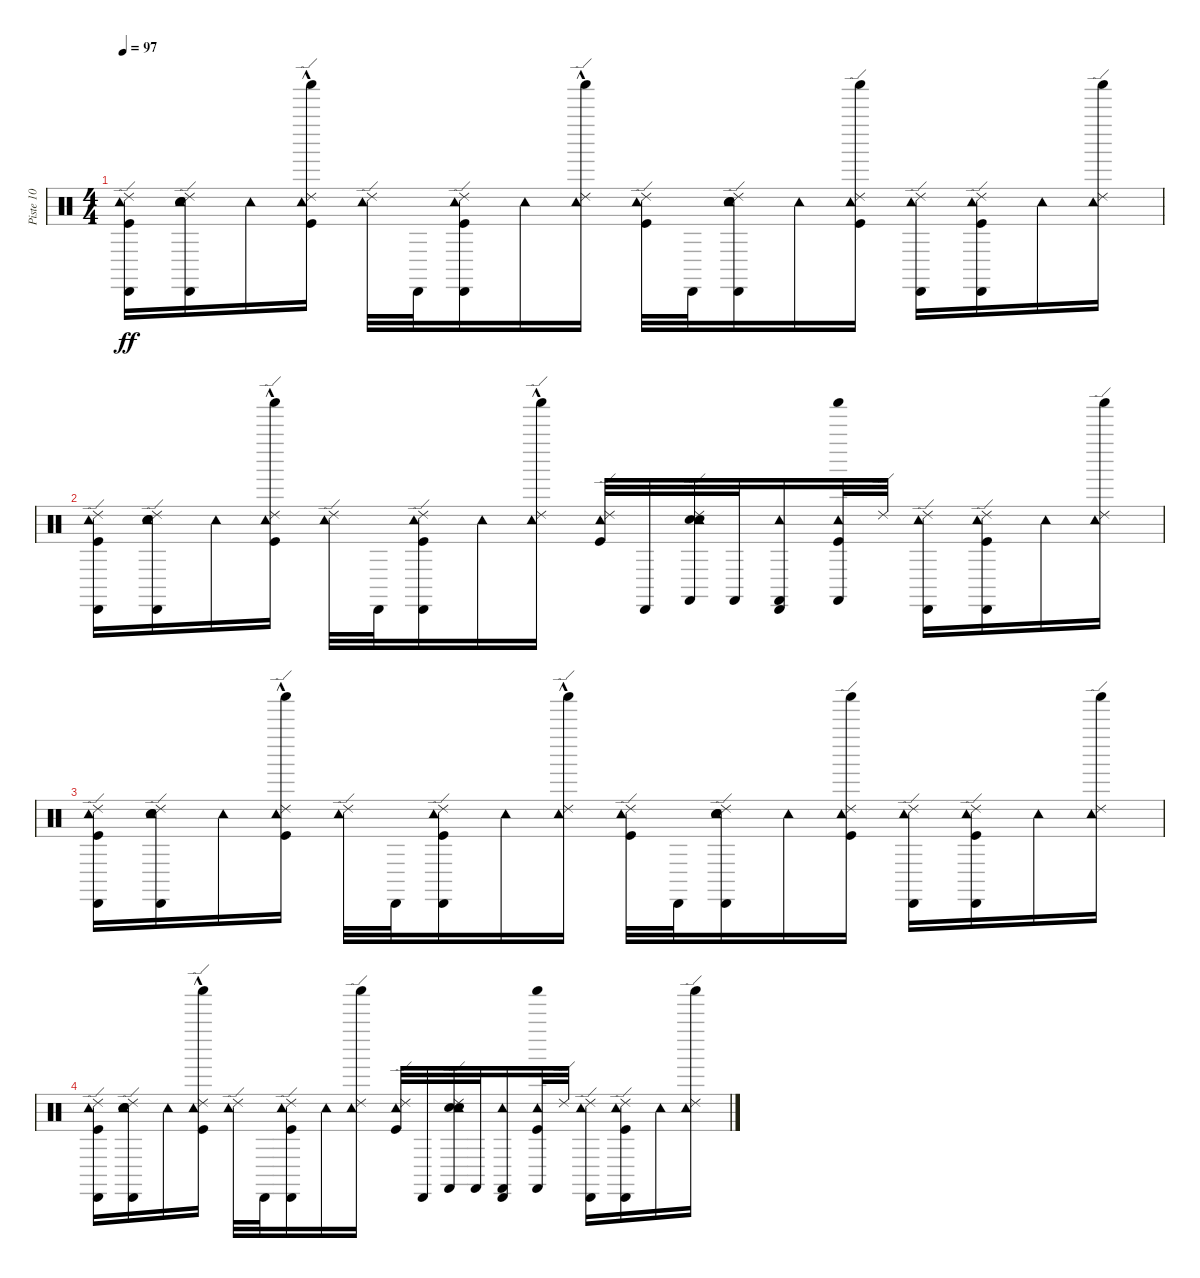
\track ("Piste 10" "Piste 10") {instrument percussion}
\staff {score}
\articulation defaults
\ts (4 4)
\tempo 97
\clef neutral
\ks c
("Cabasa (hit)" "Kick (hit)" "Tambourine (hit)" "Ride (edge) 2").16{dy ff} ("Cabasa (hit)" "Hand Clap (hit)" "Electric Snare (hit)" "Tambourine (hit)" "Ride (edge) 2").16 "Tambourine (hit)".16 ("Shaker (hit)"{hac} "Kick (hit)" "Tambourine (hit)" "Ride (edge) 2").16 ("Tambourine (hit)" "Ride (edge) 2").32 "Cabasa (hit)".32 ("Cabasa (hit)" "Kick (hit)" "Tambourine (hit)" "Ride (edge) 2").16 "Tambourine (hit)".16 ("Shaker (hit)"{hac} "Tambourine (hit)" "Ride (edge) 2").16 ("Kick (hit)" "Tambourine (hit)" "Ride (edge) 2").32 "Cabasa (hit)".32 ("Cabasa (hit)" "Hand Clap (hit)" "Electric Snare (hit)" "Tambourine (hit)" "Ride (edge) 2").16 "Tambourine (hit)".16 ("Shaker (hit)" "Kick (hit)" "Tambourine (hit)" "Ride (edge) 2").16 ("Cabasa (hit)" "Tambourine (hit)" "Ride (edge) 2").16 ("Cabasa (hit)" "Kick (hit)" "Tambourine (hit)" "Ride (edge) 2").16 "Tambourine (hit)".16 ("Shaker (hit)" "Tambourine (hit)" "Ride (edge) 2").16 |
("Cabasa (hit)" "Kick (hit)" "Tambourine (hit)" "Ride (edge) 2").16 ("Cabasa (hit)" "Hand Clap (hit)" "Electric Snare (hit)" "Tambourine (hit)" "Ride (edge) 2").16 "Tambourine (hit)".16 ("Shaker (hit)"{hac} "Kick (hit)" "Tambourine (hit)" "Ride (edge) 2").16 ("Tambourine (hit)" "Ride (edge) 2").32 "Cabasa (hit)".32 ("Cabasa (hit)" "Kick (hit)" "Tambourine (hit)" "Ride (edge) 2").16 "Tambourine (hit)".16 ("Shaker (hit)"{hac} "Tambourine (hit)" "Ride (edge) 2").16 ("Kick (hit)" "Tambourine (hit)" "Ride (edge) 2").32 "Cabasa (hit)".32 ("Castanets (hit)" "Hand Clap (hit)" "Electric Snare (hit)" "Tambourine (hit)" "Ride (edge) 2").32 "Castanets (hit)".32 ("Cabasa (hit)" "Castanets (hit)" "Tambourine (hit)").16 ("Shaker (hit)" "Castanets (hit)" "Kick (hit)" "Tambourine (hit)").32 "Ride (edge) 2".32 ("Cabasa (hit)" "Tambourine (hit)" "Ride (edge) 2").16 ("Cabasa (hit)" "Kick (hit)" "Tambourine (hit)" "Ride (edge) 2").16 "Tambourine (hit)".16 ("Shaker (hit)" "Tambourine (hit)" "Ride (edge) 2").16 |
("Cabasa (hit)" "Kick (hit)" "Tambourine (hit)" "Ride (edge) 2").16 ("Cabasa (hit)" "Hand Clap (hit)" "Electric Snare (hit)" "Tambourine (hit)" "Ride (edge) 2").16 "Tambourine (hit)".16 ("Shaker (hit)"{hac} "Kick (hit)" "Tambourine (hit)" "Ride (edge) 2").16 ("Tambourine (hit)" "Ride (edge) 2").32 "Cabasa (hit)".32 ("Cabasa (hit)" "Kick (hit)" "Tambourine (hit)" "Ride (edge) 2").16 "Tambourine (hit)".16 ("Shaker (hit)"{hac} "Tambourine (hit)" "Ride (edge) 2").16 ("Kick (hit)" "Tambourine (hit)" "Ride (edge) 2").32 "Cabasa (hit)".32 ("Cabasa (hit)" "Hand Clap (hit)" "Electric Snare (hit)" "Tambourine (hit)" "Ride (edge) 2").16 "Tambourine (hit)".16 ("Shaker (hit)" "Kick (hit)" "Tambourine (hit)" "Ride (edge) 2").16 ("Cabasa (hit)" "Tambourine (hit)" "Ride (edge) 2").16 ("Cabasa (hit)" "Kick (hit)" "Tambourine (hit)" "Ride (edge) 2").16 "Tambourine (hit)".16 ("Shaker (hit)" "Tambourine (hit)" "Ride (edge) 2").16 |
("Cabasa (hit)" "Kick (hit)" "Tambourine (hit)" "Ride (edge) 2").16 ("Cabasa (hit)" "Hand Clap (hit)" "Electric Snare (hit)" "Tambourine (hit)" "Ride (edge) 2").16 "Tambourine (hit)".16 ("Shaker (hit)"{hac} "Kick (hit)" "Tambourine (hit)" "Ride (edge) 2").16 ("Tambourine (hit)" "Ride (edge) 2").32 "Cabasa (hit)".32 ("Cabasa (hit)" "Kick (hit)" "Tambourine (hit)" "Ride (edge) 2").16 "Tambourine (hit)".16 ("Shaker (hit)" "Tambourine (hit)" "Ride (edge) 2").16 ("Kick (hit)" "Tambourine (hit)" "Ride (edge) 2").32 "Cabasa (hit)".32 ("Castanets (hit)" "Hand Clap (hit)" "Electric Snare (hit)" "Tambourine (hit)" "Ride (edge) 2").32 "Castanets (hit)".32 ("Cabasa (hit)" "Castanets (hit)" "Tambourine (hit)").16 ("Shaker (hit)" "Castanets (hit)" "Kick (hit)" "Tambourine (hit)").32 "Ride (edge) 2".32 ("Cabasa (hit)" "Tambourine (hit)" "Ride (edge) 2").16 ("Cabasa (hit)" "Kick (hit)" "Tambourine (hit)" "Ride (edge) 2").16 "Tambourine (hit)".16 ("Shaker (hit)" "Tambourine (hit)" "Ride (edge) 2").16
